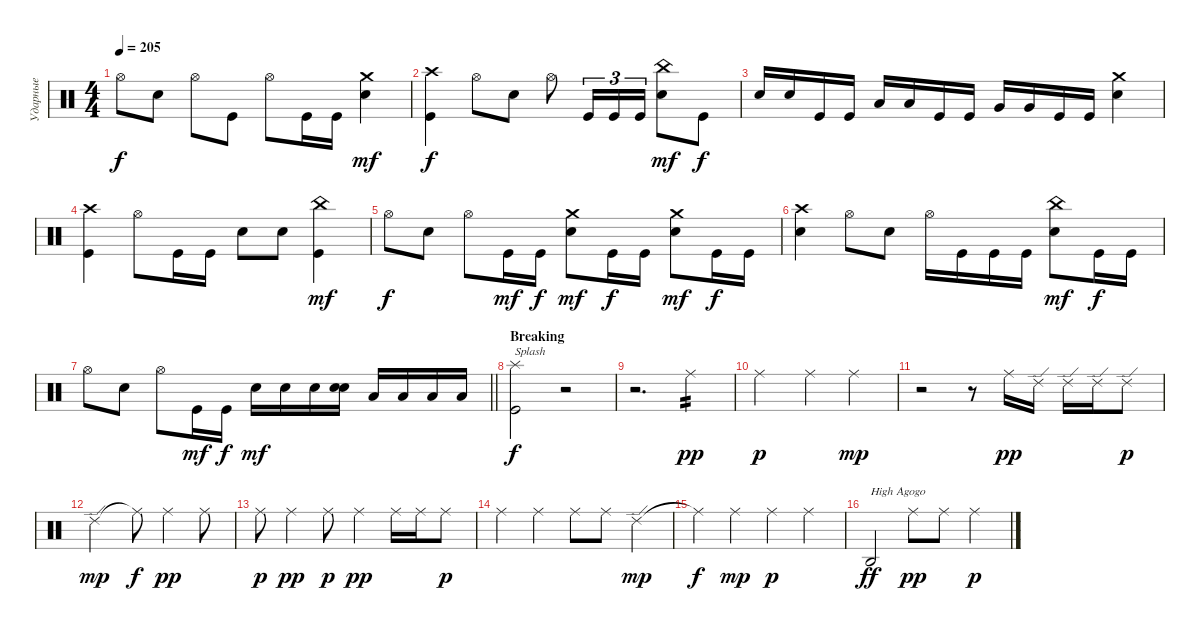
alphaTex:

\track ("Ударные" "Ударные") {instrument percussion}
\staff {score}
\articulation defaults
\ts (4 4)
\tempo 205
\clef neutral
\ks aminor "Hi-Hat (open)".8{dy f} "Snare (hit) 2".8 "Hi-Hat (open)".8 "Kick (hit)".8 "Hi-Hat (open)".8 "Kick (hit)".16 "Kick (hit)".16
("Snare (hit) 2" "Crash medium (hit)").4{dy mf} |
("Kick (hit)" "Crash high (hit)").4{dy f} "Hi-Hat (open)".8 "Snare (hit) 2".8 "Hi-Hat (open)".8 "Kick (hit)".16{tu (3 2)} "Kick (hit)".16{tu (3 2)} "Kick (hit)".16{tu (3 2)} ("Snare (hit) 2" "China (hit)").8{dy mf} "Kick (hit)".8{dy f} |
"Snare (hit) 2".16 "Snare (hit) 2".16 "Kick (hit)".16 "Kick (hit)".16 "Low Tom (hit)".16 "Low Tom (hit)".16 "Kick (hit)".16 "Kick (hit)".16 "Very Low Tom (hit)".16 "Very Low Tom (hit)".16 "Kick (hit)".16 "Kick (hit)".16 ("Snare (hit) 2" "Crash medium (hit)").4 |
("Kick (hit)" "Crash high (hit)").4 "Hi-Hat (open)".8 "Kick (hit)".16 "Kick (hit)".16 "Snare (hit) 2".8 "Snare (hit) 2".8 ("Kick (hit)" "China (hit)").4{dy mf} |
"Hi-Hat (open)".8{dy f} "Snare (hit) 2".8 "Hi-Hat (open)".8 "Kick (hit)".16{dy mf} "Kick (hit)".16{dy f} ("Snare (hit) 2" "Crash medium (hit)").8{dy mf} "Kick (hit)".16{dy f} "Kick (hit)".16 ("Snare (hit) 2" "Crash medium (hit)").8{dy mf} "Kick (hit)".16{dy f} "Kick (hit)".16 |
("Snare (hit) 2" "Crash high (hit)").4 "Hi-Hat (open)".8 "Snare (hit) 2".8 "Hi-Hat (open)".16 "Kick (hit)".16 "Kick (hit)".16 "Kick (hit)".16 ("Snare (hit) 2" "China (hit)").8{dy mf} "Kick (hit)".16{dy f} "Kick (hit)".16 |
\barLineRight lightlight "Hi-Hat (open)".8 "Snare (hit) 2".8 "Hi-Hat (open)".8 "Kick (hit)".16{dy mf} "Kick (hit)".16{dy f} "Snare (hit) 2".16{dy mf} "Snare (hit) 2".16 "Snare (hit) 2".16
("Snare (hit) 2" "Snare (hit) 2").16 "Low Tom (hit)".16 "Low Tom (hit)".16 "Low Tom (hit)".16 "Low Tom (hit)".16 |
\section ("" "Breaking")
("Kick (hit)" "Splash (hit)").2{txt "Splash" dy f} r.2 |
r.2{d} "Ride (middle)".4{tp 2 dy pp} |
"Ride (middle)".2{dy p} "Ride (middle)".4 "Ride (middle)".4{dy mp} |
r.2 r.8 "Ride (middle)".16{dy pp} "Ride (edge) 2".16 "Ride (edge) 2".16 "Ride (edge) 2".16 "Ride (edge) 2".8{dy p} |
"Ride (edge) 2".2{dy mp} "Ride (middle)"{t}.8{dy f} "Ride (middle)".4{dy pp} "Ride (middle)".8 |
"Ride (middle)".8{dy p} "Ride (middle)".4{dy pp} "Ride (middle)".8{dy p} "Ride (middle)".4{dy pp} "Ride (middle)".16 "Ride (middle)".16 "Ride (middle)".8{dy p} |
"Ride (middle)".4 "Ride (middle)".4 "Ride (middle)".8 "Ride (middle)".8 "Ride (edge) 2".4{dy mp} |
"Ride (middle)"{t}.4{dy f} "Ride (middle)".4{dy mp} "Ride (middle)".4{dy p} "Ride (middle)".4 |
"Agogo high (hit)".2{txt "High Agogo" dy ff} "Ride (middle)".8{dy pp} "Ride (middle)".8 "Ride (middle)".4{dy p}
